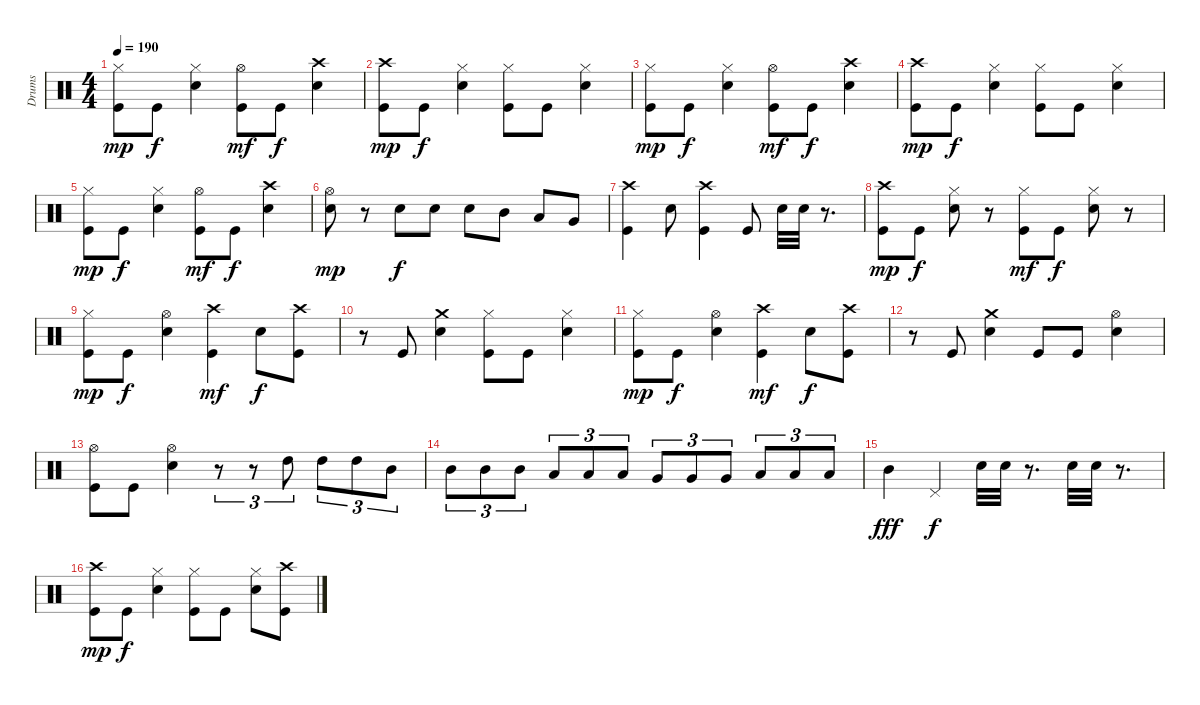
\track ("Drums" "Drums") {instrument percussion}
\staff {score}
\articulation defaults
\ts (4 4)
\tempo 190
\clef neutral
\ks c
("Hi-Hat (closed)" "Kick (hit)").8{dy mp} "Kick (hit)".8{dy f} ("Hi-Hat (closed)" "Snare (hit) 2").4 ("Hi-Hat (open)" "Kick (hit)").8{dy mf} "Kick (hit)".8{dy f} ("Crash high (hit)" "Snare (hit) 2").4 |
("Crash high (hit)" "Kick (hit)").8{dy mp} "Kick (hit)".8{dy f} ("Hi-Hat (closed)" "Snare (hit) 2").4 ("Hi-Hat (closed)" "Kick (hit)").8 "Kick (hit)".8 ("Hi-Hat (closed)" "Snare (hit) 2").4 |
("Hi-Hat (closed)" "Kick (hit)").8{dy mp} "Kick (hit)".8{dy f} ("Hi-Hat (closed)" "Snare (hit) 2").4 ("Hi-Hat (open)" "Kick (hit)").8{dy mf} "Kick (hit)".8{dy f} ("Crash high (hit)" "Snare (hit) 2").4 |
("Crash high (hit)" "Kick (hit)").8{dy mp} "Kick (hit)".8{dy f} ("Hi-Hat (closed)" "Snare (hit) 2").4 ("Hi-Hat (closed)" "Kick (hit)").8 "Kick (hit)".8 ("Hi-Hat (closed)" "Snare (hit) 2").4 |
("Hi-Hat (closed)" "Kick (hit)").8{dy mp} "Kick (hit)".8{dy f} ("Hi-Hat (closed)" "Snare (hit) 2").4 ("Hi-Hat (open)" "Kick (hit)").8{dy mf} "Kick (hit)".8{dy f} ("Crash high (hit)" "Snare (hit) 2").4 |
("Hi-Hat (open)" "Snare (hit) 2").8{dy mp} r.8 "Snare (hit) 2".8{dy f} "Snare (hit) 2".8 "Snare (hit) 2".8 "Mid Tom (hit)".8 "Low Tom (hit)".8 "Very Low Tom (hit)".8 |
("Crash high (hit)" "Kick (hit)").4 "Snare (hit) 2".8 ("Crash high (hit)" "Kick (hit)").4 "Kick (hit)".8 "Snare (hit) 2".32 "Snare (hit) 2".32 r.8{d} |
("Crash high (hit)" "Kick (hit)").8{dy mp} "Kick (hit)".8{dy f} ("Hi-Hat (closed)" "Snare (hit) 2").8 r.8 ("Hi-Hat (closed)" "Kick (hit)").8{dy mf} "Kick (hit)".8{dy f} ("Hi-Hat (closed)" "Snare (hit) 2").8 r.8 |
("Hi-Hat (closed)" "Kick (hit)").8{dy mp} "Kick (hit)".8{dy f} ("Hi-Hat (open)" "Snare (hit) 2").4 ("Crash high (hit)" "Kick (hit)").4{dy mf} "Snare (hit) 2".8{dy f} ("Crash high (hit)" "Kick (hit)").8 |
r.8 "Kick (hit)".8 ("Crash medium (hit)" "Snare (hit) 2").4 ("Hi-Hat (closed)" "Kick (hit)").8 "Kick (hit)".8 ("Hi-Hat (closed)" "Snare (hit) 2").4 |
("Hi-Hat (closed)" "Kick (hit)").8{dy mp} "Kick (hit)".8{dy f} ("Hi-Hat (open)" "Snare (hit) 2").4 ("Crash high (hit)" "Kick (hit)").4{dy mf} "Snare (hit) 2".8{dy f} ("Crash high (hit)" "Kick (hit)").8 |
r.8 "Kick (hit)".8 ("Crash medium (hit)" "Snare (hit) 2").4 "Kick (hit)".8 "Kick (hit)".8 ("Hi-Hat (open)" "Snare (hit) 2").4 |
("Hi-Hat (open)" "Kick (hit)").8 "Kick (hit)".8 ("Hi-Hat (open)" "Snare (hit) 2").4 r.8{tu (3 2)} r.8{tu (3 2)} "High Tom (hit)".8{tu (3 2)} "High Tom (hit)".8{tu (3 2)} "High Tom (hit)".8{tu (3 2)} "Mid Tom (hit)".8{tu (3 2)} |
"Mid Tom (hit)".8{tu (3 2)} "Mid Tom (hit)".8{tu (3 2)} "Mid Tom (hit)".8{tu (3 2)} "Low Tom (hit)".8{tu (3 2)} "Low Tom (hit)".8{tu (3 2)} "Low Tom (hit)".8{tu (3 2)} "Very Low Tom (hit)".8{tu (3 2)} "Very Low Tom (hit)".8{tu (3 2)} "Very Low Tom (hit)".8{tu (3 2)} "Low Floor Tom (hit)".8{tu (3 2)} "Low Floor Tom (hit)".8{tu (3 2)} "Low Floor Tom (hit)".8{tu (3 2)} |
"Mid Tom (hit)".4{dy fff} "Pedal Hi-Hat (hit)".4{dy f} "Snare (hit) 2".32 "Snare (hit) 2".32 r.8{d} "Snare (hit) 2".32 "Snare (hit) 2".32 r.8{d} |
("Crash high (hit)" "Kick (hit)").8{dy mp} "Kick (hit)".8{dy f} ("Hi-Hat (closed)" "Snare (hit) 2").4 ("Hi-Hat (closed)" "Kick (hit)").8 "Kick (hit)".8 ("Hi-Hat (closed)" "Snare (hit) 2").8 ("Crash high (hit)" "Kick (hit)").8
